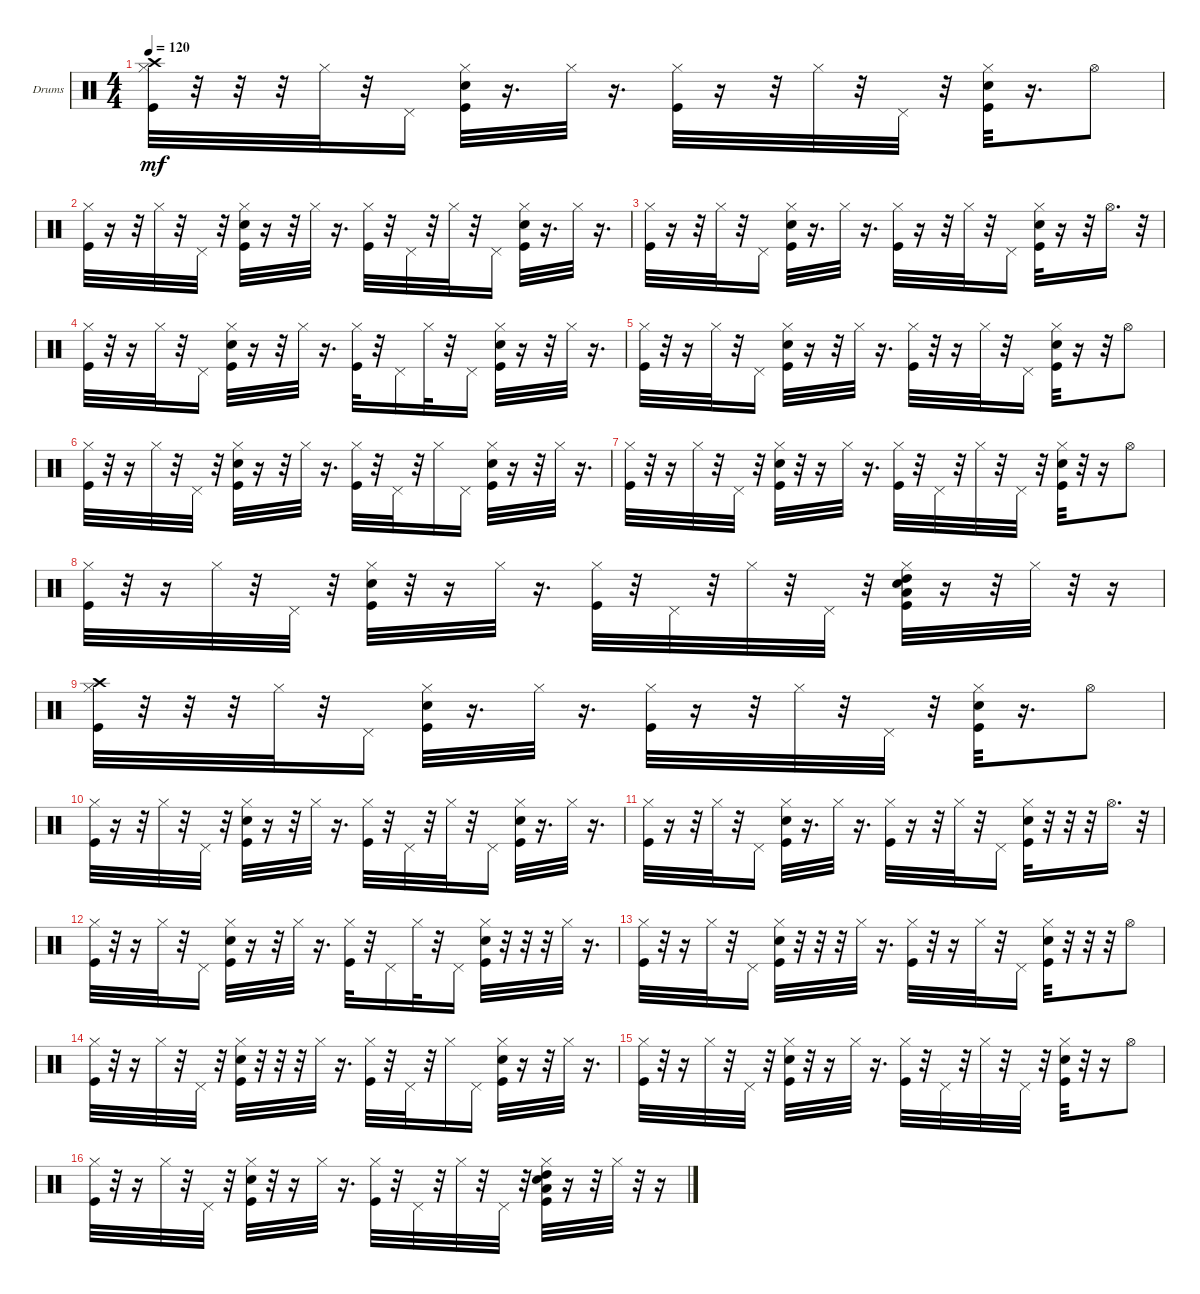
\bracketExtendMode groupsimilarinstruments
\firstSystemTrackNameOrientation horizontal
\otherSystemsTrackNameOrientation horizontal
\track ("Ударные" "Drums") {instrument percussion}
\staff {score}
\articulation defaults
\ts (4 4)
\tempo 120
\clef neutral
\ks c
("Kick (hit)" "Hi-Hat (closed)" "Crash high (hit)").32{dy mf} r.32 r.32 r.32 "Hi-Hat (closed)".32 r.32 "Pedal Hi-Hat (hit)".16 ("Kick (hit)" "Snare (hit) 2" "Hi-Hat (closed)").32 r.16{d} "Hi-Hat (closed)".32 r.16{d} ("Kick (hit)" "Hi-Hat (closed)").32 r.16 r.32 "Hi-Hat (closed)".32 r.32 "Pedal Hi-Hat (hit)".32 r.32 ("Kick (hit)" "Snare (hit) 2" "Hi-Hat (closed)").32 r.16{d} "Hi-Hat (open)".8 |
("Kick (hit)" "Hi-Hat (closed)").32 r.16 r.32 "Hi-Hat (closed)".32 r.32 "Pedal Hi-Hat (hit)".32 r.32 ("Snare (hit) 2" "Kick (hit)" "Hi-Hat (closed)").32 r.16 r.32 "Hi-Hat (closed)".32 r.16{d} ("Kick (hit)" "Hi-Hat (closed)").32 r.32 "Pedal Hi-Hat (hit)".32 r.32 "Hi-Hat (closed)".32 r.32 "Pedal Hi-Hat (hit)".16 ("Kick (hit)" "Snare (hit) 2" "Hi-Hat (closed)").32 r.16{d} "Hi-Hat (closed)".32 r.16{d} |
("Kick (hit)" "Hi-Hat (closed)").32 r.16 r.32 "Hi-Hat (closed)".32 r.32 "Pedal Hi-Hat (hit)".16 ("Snare (hit) 2" "Kick (hit)" "Hi-Hat (closed)").32 r.16{d} "Hi-Hat (closed)".32 r.16{d} ("Kick (hit)" "Hi-Hat (closed)").32 r.16 r.32 "Hi-Hat (closed)".32 r.32 "Pedal Hi-Hat (hit)".16 ("Snare (hit) 2" "Kick (hit)" "Hi-Hat (closed)").32 r.16 r.32 "Hi-Hat (open)".16{d} r.32 |
("Kick (hit)" "Hi-Hat (closed)").32 r.32 r.16 "Hi-Hat (closed)".32 r.32 "Pedal Hi-Hat (hit)".16 ("Kick (hit)" "Snare (hit) 2" "Hi-Hat (closed)").32 r.16 r.32 "Hi-Hat (closed)".32 r.16{d} ("Kick (hit)" "Hi-Hat (closed)").32 r.32 "Pedal Hi-Hat (hit)".16 "Hi-Hat (closed)".32 r.32 "Pedal Hi-Hat (hit)".16 ("Snare (hit) 2" "Kick (hit)" "Hi-Hat (closed)").32 r.16 r.32 "Hi-Hat (closed)".32 r.16{d} |
("Kick (hit)" "Hi-Hat (closed)").32 r.32 r.16 "Hi-Hat (closed)".32 r.32 "Pedal Hi-Hat (hit)".16 ("Snare (hit) 2" "Kick (hit)" "Hi-Hat (closed)").32 r.16 r.32 "Hi-Hat (closed)".32 r.16{d} ("Kick (hit)" "Hi-Hat (closed)").32 r.32 r.16 "Hi-Hat (closed)".32 r.32 "Pedal Hi-Hat (hit)".16 ("Snare (hit) 2" "Kick (hit)" "Hi-Hat (closed)").32 r.16 r.32 "Hi-Hat (open)".8 |
("Kick (hit)" "Hi-Hat (closed)").32 r.32 r.16 "Hi-Hat (closed)".32 r.32 "Pedal Hi-Hat (hit)".32 r.32 ("Kick (hit)" "Snare (hit) 2" "Hi-Hat (closed)").32 r.16 r.32 "Hi-Hat (closed)".32 r.16{d} ("Kick (hit)" "Hi-Hat (closed)").32 r.32 "Pedal Hi-Hat (hit)".32 r.32 "Hi-Hat (closed)".16 "Pedal Hi-Hat (hit)".16 ("Snare (hit) 2" "Kick (hit)" "Hi-Hat (closed)").32 r.16 r.32 "Hi-Hat (closed)".32 r.16{d} |
("Kick (hit)" "Hi-Hat (closed)").32 r.32 r.16 "Hi-Hat (closed)".32 r.32 "Pedal Hi-Hat (hit)".32 r.32 ("Kick (hit)" "Snare (hit) 2" "Hi-Hat (closed)").32 r.32 r.16 "Hi-Hat (closed)".32 r.16{d} ("Kick (hit)" "Hi-Hat (closed)").32 r.32 "Pedal Hi-Hat (hit)".32 r.32 "Hi-Hat (closed)".32 r.32 "Pedal Hi-Hat (hit)".32 r.32 ("Snare (hit) 2" "Kick (hit)" "Hi-Hat (closed)").32 r.32 r.16 "Hi-Hat (open)".8 |
("Kick (hit)" "Hi-Hat (closed)").32 r.32 r.16 "Hi-Hat (closed)".32 r.32 "Pedal Hi-Hat (hit)".32 r.32 ("Snare (hit) 2" "Kick (hit)" "Hi-Hat (closed)").32 r.32 r.16 "Hi-Hat (closed)".32 r.16{d} ("Kick (hit)" "Hi-Hat (closed)").32 r.32 "Pedal Hi-Hat (hit)".32 r.32 "Hi-Hat (closed)".32 r.32 "Pedal Hi-Hat (hit)".32 r.32 ("Snare (hit) 2" "Kick (hit)" "Hi-Hat (closed)" "Low Tom (hit)" "High Tom (hit)").32 r.16 r.32 "Hi-Hat (closed)".32 r.32 r.16 |
("Kick (hit)" "Hi-Hat (closed)" "Crash high (hit)").32 r.32 r.32 r.32 "Hi-Hat (closed)".32 r.32 "Pedal Hi-Hat (hit)".16 ("Kick (hit)" "Snare (hit) 2" "Hi-Hat (closed)").32 r.16{d} "Hi-Hat (closed)".32 r.16{d} ("Kick (hit)" "Hi-Hat (closed)").32 r.16 r.32 "Hi-Hat (closed)".32 r.32 "Pedal Hi-Hat (hit)".32 r.32 ("Kick (hit)" "Snare (hit) 2" "Hi-Hat (closed)").32 r.16{d} "Hi-Hat (open)".8 |
("Kick (hit)" "Hi-Hat (closed)").32 r.16 r.32 "Hi-Hat (closed)".32 r.32 "Pedal Hi-Hat (hit)".32 r.32 ("Snare (hit) 2" "Kick (hit)" "Hi-Hat (closed)").32 r.16 r.32 "Hi-Hat (closed)".32 r.16{d} ("Kick (hit)" "Hi-Hat (closed)").32 r.32 "Pedal Hi-Hat (hit)".32 r.32 "Hi-Hat (closed)".32 r.32 "Pedal Hi-Hat (hit)".16 ("Kick (hit)" "Snare (hit) 2" "Hi-Hat (closed)").32 r.16{d} "Hi-Hat (closed)".32 r.16{d} |
("Kick (hit)" "Hi-Hat (closed)").32 r.16 r.32 "Hi-Hat (closed)".32 r.32 "Pedal Hi-Hat (hit)".16 ("Snare (hit) 2" "Kick (hit)" "Hi-Hat (closed)").32 r.16{d} "Hi-Hat (closed)".32 r.16{d} ("Kick (hit)" "Hi-Hat (closed)").32 r.16 r.32 "Hi-Hat (closed)".32 r.32 "Pedal Hi-Hat (hit)".16 ("Snare (hit) 2" "Kick (hit)" "Hi-Hat (closed)").32 r.32 r.32 r.32 "Hi-Hat (open)".16{d} r.32 |
("Kick (hit)" "Hi-Hat (closed)").32 r.32 r.16 "Hi-Hat (closed)".32 r.32 "Pedal Hi-Hat (hit)".16 ("Kick (hit)" "Snare (hit) 2" "Hi-Hat (closed)").32 r.16 r.32 "Hi-Hat (closed)".32 r.16{d} ("Kick (hit)" "Hi-Hat (closed)").32 r.32 "Pedal Hi-Hat (hit)".16 "Hi-Hat (closed)".32 r.32 "Pedal Hi-Hat (hit)".16 ("Snare (hit) 2" "Kick (hit)" "Hi-Hat (closed)").32 r.32 r.32 r.32 "Hi-Hat (closed)".32 r.16{d} |
("Kick (hit)" "Hi-Hat (closed)").32 r.32 r.16 "Hi-Hat (closed)".32 r.32 "Pedal Hi-Hat (hit)".16 ("Snare (hit) 2" "Kick (hit)" "Hi-Hat (closed)").32 r.32 r.32 r.32 "Hi-Hat (closed)".32 r.16{d} ("Kick (hit)" "Hi-Hat (closed)").32 r.32 r.16 "Hi-Hat (closed)".32 r.32 "Pedal Hi-Hat (hit)".16 ("Snare (hit) 2" "Kick (hit)" "Hi-Hat (closed)").32 r.32 r.32 r.32 "Hi-Hat (open)".8 |
("Kick (hit)" "Hi-Hat (closed)").32 r.32 r.16 "Hi-Hat (closed)".32 r.32 "Pedal Hi-Hat (hit)".32 r.32 ("Kick (hit)" "Snare (hit) 2" "Hi-Hat (closed)").32 r.32 r.32 r.32 "Hi-Hat (closed)".32 r.16{d} ("Kick (hit)" "Hi-Hat (closed)").32 r.32 "Pedal Hi-Hat (hit)".32 r.32 "Hi-Hat (closed)".16 "Pedal Hi-Hat (hit)".16 ("Snare (hit) 2" "Kick (hit)" "Hi-Hat (closed)").32 r.16 r.32 "Hi-Hat (closed)".32 r.16{d} |
("Kick (hit)" "Hi-Hat (closed)").32 r.32 r.16 "Hi-Hat (closed)".32 r.32 "Pedal Hi-Hat (hit)".32 r.32 ("Kick (hit)" "Snare (hit) 2" "Hi-Hat (closed)").32 r.32 r.16 "Hi-Hat (closed)".32 r.16{d} ("Kick (hit)" "Hi-Hat (closed)").32 r.32 "Pedal Hi-Hat (hit)".32 r.32 "Hi-Hat (closed)".32 r.32 "Pedal Hi-Hat (hit)".32 r.32 ("Snare (hit) 2" "Kick (hit)" "Hi-Hat (closed)").32 r.32 r.16 "Hi-Hat (open)".8 |
("Kick (hit)" "Hi-Hat (closed)").32 r.32 r.16 "Hi-Hat (closed)".32 r.32 "Pedal Hi-Hat (hit)".32 r.32 ("Snare (hit) 2" "Kick (hit)" "Hi-Hat (closed)").32 r.32 r.16 "Hi-Hat (closed)".32 r.16{d} ("Kick (hit)" "Hi-Hat (closed)").32 r.32 "Pedal Hi-Hat (hit)".32 r.32 "Hi-Hat (closed)".32 r.32 "Pedal Hi-Hat (hit)".32 r.32 ("Snare (hit) 2" "Kick (hit)" "Hi-Hat (closed)" "Low Tom (hit)" "High Tom (hit)").32 r.16 r.32 "Hi-Hat (closed)".32 r.32 r.16
